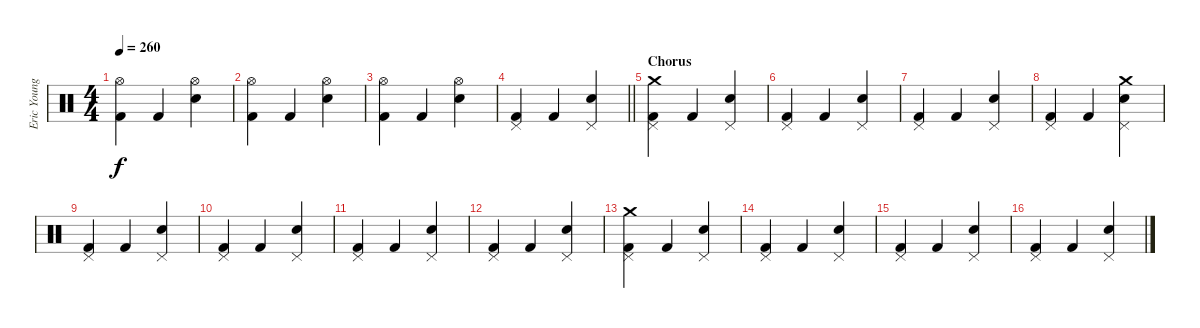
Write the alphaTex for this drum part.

\track ("Eric Young (Drums)" "Eric Young") {instrument percussion}
\staff {score}
\articulation defaults
\ts (4 4)
\tempo 260
\clef neutral
\ks c
("Hi-Hat (open)" "Kick (hit) 2").4{dy f} "Kick (hit) 2".4 ("Hi-Hat (open)" "Snare (hit) 2").4 |
("Hi-Hat (open)" "Kick (hit) 2").4 "Kick (hit) 2".4 ("Hi-Hat (open)" "Snare (hit) 2").4 |
("Hi-Hat (open)" "Kick (hit) 2").4 "Kick (hit) 2".4 ("Hi-Hat (open)" "Snare (hit) 2").4 |
\barLineRight lightlight
("Pedal Hi-Hat (hit)" "Kick (hit) 2").4 "Kick (hit) 2".4 ("Pedal Hi-Hat (hit)" "Snare (hit) 2").4 |
\section ("" "Chorus")
("Pedal Hi-Hat (hit)" "Kick (hit) 2" "Crash medium (hit)").4 "Kick (hit) 2".4 ("Pedal Hi-Hat (hit)" "Snare (hit) 2").4 |
("Pedal Hi-Hat (hit)" "Kick (hit) 2").4 "Kick (hit) 2".4 ("Pedal Hi-Hat (hit)" "Snare (hit) 2").4 |
("Pedal Hi-Hat (hit)" "Kick (hit) 2").4 "Kick (hit) 2".4 ("Pedal Hi-Hat (hit)" "Snare (hit) 2").4 |
("Pedal Hi-Hat (hit)" "Kick (hit) 2").4 "Kick (hit) 2".4 ("Pedal Hi-Hat (hit)" "Snare (hit) 2" "Crash medium (hit)").4 |
("Pedal Hi-Hat (hit)" "Kick (hit) 2").4 "Kick (hit) 2".4 ("Pedal Hi-Hat (hit)" "Snare (hit) 2").4 |
("Pedal Hi-Hat (hit)" "Kick (hit) 2").4 "Kick (hit) 2".4 ("Pedal Hi-Hat (hit)" "Snare (hit) 2").4 |
("Pedal Hi-Hat (hit)" "Kick (hit) 2").4 "Kick (hit) 2".4 ("Pedal Hi-Hat (hit)" "Snare (hit) 2").4 |
("Pedal Hi-Hat (hit)" "Kick (hit) 2").4 "Kick (hit) 2".4 ("Pedal Hi-Hat (hit)" "Snare (hit) 2").4 |
("Pedal Hi-Hat (hit)" "Kick (hit) 2" "Crash medium (hit)").4 "Kick (hit) 2".4 ("Pedal Hi-Hat (hit)" "Snare (hit) 2").4 |
("Pedal Hi-Hat (hit)" "Kick (hit) 2").4 "Kick (hit) 2".4 ("Pedal Hi-Hat (hit)" "Snare (hit) 2").4 |
("Pedal Hi-Hat (hit)" "Kick (hit) 2").4 "Kick (hit) 2".4 ("Pedal Hi-Hat (hit)" "Snare (hit) 2").4 |
("Pedal Hi-Hat (hit)" "Kick (hit) 2").4 "Kick (hit) 2".4 ("Pedal Hi-Hat (hit)" "Snare (hit) 2").4
